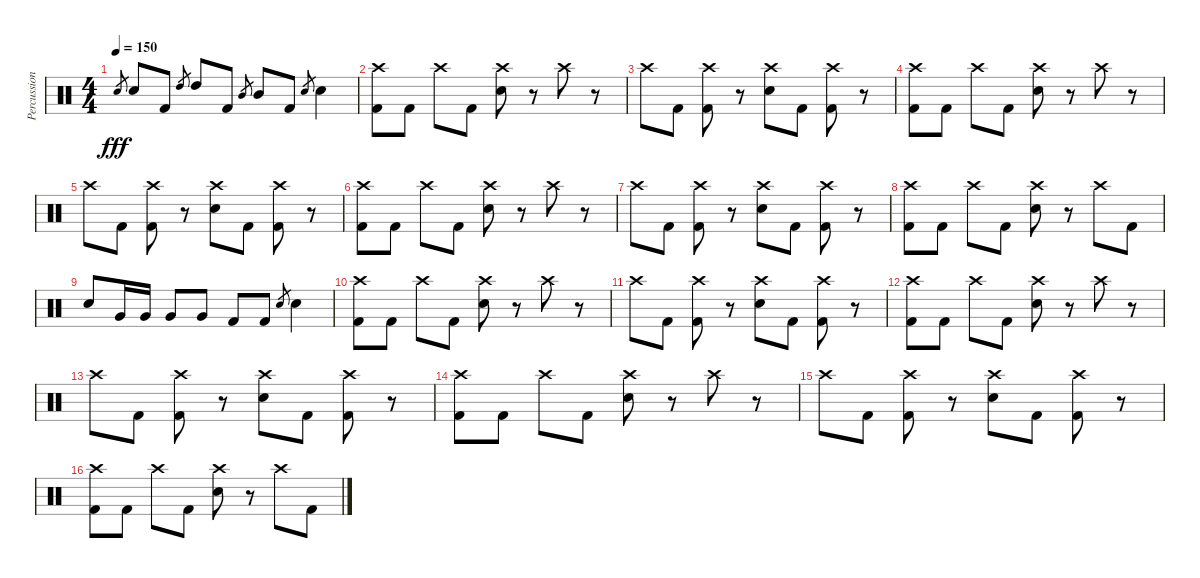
\track ("Percussion" "Percussion") {instrument percussion}
\staff {score}
\articulation defaults
\ts (4 4)
\tempo 150
\clef neutral
\ks c "Electric Snare (hit)".8{gr dy fff} "Electric Snare (hit)".8 "Kick (hit) 2".8 "High Tom (hit)".8{gr} "High Tom (hit)".8 "Kick (hit) 2".8 "Mid Tom (hit)".8{gr} "Mid Tom (hit)".8 "Kick (hit) 2".8 "Electric Snare (hit)".8{gr} "Electric Snare (hit)".4
|
("Crash high (hit)" "Kick (hit) 2").8 "Kick (hit) 2".8 "Crash high (hit)".8 "Kick (hit) 2".8 ("Crash high (hit)" "Electric Snare (hit)").8 r.8 "Crash high (hit)".8 r.8 |
"Crash high (hit)".8 "Kick (hit) 2".8 ("Crash high (hit)" "Kick (hit) 2").8 r.8 ("Crash high (hit)" "Electric Snare (hit)").8 "Kick (hit) 2".8 ("Crash high (hit)" "Kick (hit) 2").8 r.8 |
("Crash high (hit)" "Kick (hit) 2").8 "Kick (hit) 2".8 "Crash high (hit)".8 "Kick (hit) 2".8 ("Crash high (hit)" "Electric Snare (hit)").8 r.8 "Crash high (hit)".8 r.8 |
"Crash high (hit)".8 "Kick (hit) 2".8 ("Crash high (hit)" "Kick (hit) 2").8 r.8 ("Crash high (hit)" "Electric Snare (hit)").8 "Kick (hit) 2".8 ("Crash high (hit)" "Kick (hit) 2").8 r.8 |
("Crash high (hit)" "Kick (hit) 2").8 "Kick (hit) 2".8 "Crash high (hit)".8 "Kick (hit) 2".8 ("Crash high (hit)" "Electric Snare (hit)").8 r.8 "Crash high (hit)".8 r.8 |
"Crash high (hit)".8 "Kick (hit) 2".8 ("Crash high (hit)" "Kick (hit) 2").8 r.8 ("Crash high (hit)" "Electric Snare (hit)").8 "Kick (hit) 2".8 ("Crash high (hit)" "Kick (hit) 2").8 r.8 |
("Crash high (hit)" "Kick (hit) 2").8 "Kick (hit) 2".8 "Crash high (hit)".8 "Kick (hit) 2".8 ("Crash high (hit)" "Electric Snare (hit)").8 r.8 "Crash high (hit)".8 "Kick (hit) 2".8 |
"Electric Snare (hit)".8 "Very Low Tom (hit)".16 "Very Low Tom (hit)".16 "Very Low Tom (hit)".8 "Very Low Tom (hit)".8 "Kick (hit) 2".8 "Kick (hit) 2".8 "Electric Snare (hit)".8{gr} "Electric Snare (hit)".4 |
("Crash high (hit)" "Kick (hit) 2").8 "Kick (hit) 2".8 "Crash high (hit)".8 "Kick (hit) 2".8 ("Crash high (hit)" "Electric Snare (hit)").8 r.8 "Crash high (hit)".8 r.8 |
"Crash high (hit)".8 "Kick (hit) 2".8 ("Crash high (hit)" "Kick (hit) 2").8 r.8 ("Crash high (hit)" "Electric Snare (hit)").8 "Kick (hit) 2".8 ("Crash high (hit)" "Kick (hit) 2").8 r.8 |
("Crash high (hit)" "Kick (hit) 2").8 "Kick (hit) 2".8 "Crash high (hit)".8 "Kick (hit) 2".8 ("Crash high (hit)" "Electric Snare (hit)").8 r.8 "Crash high (hit)".8 r.8 |
"Crash high (hit)".8 "Kick (hit) 2".8 ("Crash high (hit)" "Kick (hit) 2").8 r.8 ("Crash high (hit)" "Electric Snare (hit)").8 "Kick (hit) 2".8 ("Crash high (hit)" "Kick (hit) 2").8 r.8 |
("Crash high (hit)" "Kick (hit) 2").8 "Kick (hit) 2".8 "Crash high (hit)".8 "Kick (hit) 2".8 ("Crash high (hit)" "Electric Snare (hit)").8 r.8 "Crash high (hit)".8 r.8 |
"Crash high (hit)".8 "Kick (hit) 2".8 ("Crash high (hit)" "Kick (hit) 2").8 r.8 ("Crash high (hit)" "Electric Snare (hit)").8 "Kick (hit) 2".8 ("Crash high (hit)" "Kick (hit) 2").8 r.8 |
("Crash high (hit)" "Kick (hit) 2").8 "Kick (hit) 2".8 "Crash high (hit)".8 "Kick (hit) 2".8 ("Crash high (hit)" "Electric Snare (hit)").8 r.8 "Crash high (hit)".8 "Kick (hit) 2".8
